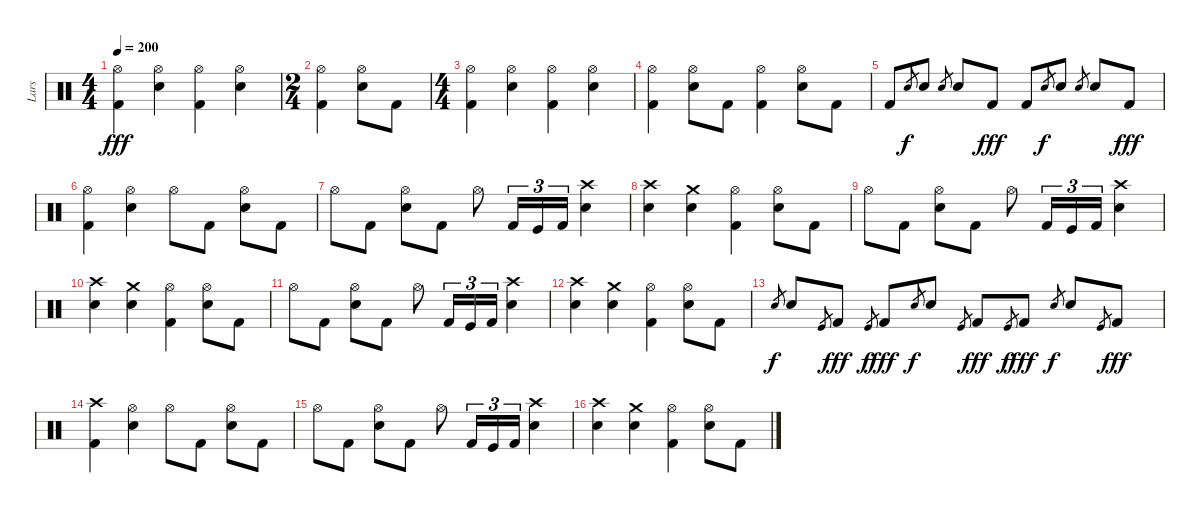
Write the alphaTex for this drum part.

\track ("Lars" "Lars") {instrument percussion}
\staff {score}
\articulation defaults
\ts (4 4)
\tempo 200
\clef neutral
\ks c
("Hi-Hat (open)" "Kick (hit) 2").4{dy fff} ("Hi-Hat (open)" "Snare (hit) 2").4 ("Hi-Hat (open)" "Kick (hit) 2").4 ("Hi-Hat (open)" "Snare (hit) 2").4 |
\ts (2 4)
("Hi-Hat (open)" "Kick (hit) 2").4 ("Hi-Hat (open)" "Snare (hit) 2").8 "Kick (hit) 2".8 |
\ts (4 4)
("Hi-Hat (open)" "Kick (hit) 2").4 ("Hi-Hat (open)" "Snare (hit) 2").4 ("Hi-Hat (open)" "Kick (hit) 2").4 ("Hi-Hat (open)" "Snare (hit) 2").4 |
("Hi-Hat (open)" "Kick (hit) 2").4 ("Hi-Hat (open)" "Snare (hit) 2").8 "Kick (hit) 2".8 ("Hi-Hat (open)" "Kick (hit) 2").4 ("Hi-Hat (open)" "Snare (hit) 2").8 "Kick (hit) 2".8 |
"Kick (hit) 2".8 "Snare (hit) 2".8{gr dy f} "Snare (hit) 2".8 "Snare (hit) 2".8{gr} "Snare (hit) 2".8 "Kick (hit) 2".8{dy fff} "Kick (hit) 2".8 "Snare (hit) 2".8{gr dy f} "Snare (hit) 2".8 "Snare (hit) 2".8{gr} "Snare (hit) 2".8 "Kick (hit) 2".8{dy fff} |
("Hi-Hat (open)" "Kick (hit) 2").4 ("Hi-Hat (open)" "Snare (hit) 2").4 "Hi-Hat (open)".8 "Kick (hit) 2".8 ("Hi-Hat (open)" "Snare (hit) 2").8 "Kick (hit) 2".8 |
"Hi-Hat (open)".8 "Kick (hit) 2".8 ("Hi-Hat (open)" "Snare (hit) 2").8 "Kick (hit) 2".8 "Hi-Hat (open)".8 "Kick (hit) 2".16{tu (3 2)} "Kick (hit)".16{tu (3 2)} "Kick (hit) 2".16{tu (3 2)} ("Crash high (hit)" "Snare (hit) 2").4 |
("Crash high (hit)" "Snare (hit) 2").4 ("Crash medium (hit)" "Snare (hit) 2").4 ("Hi-Hat (open)" "Kick (hit) 2").4 ("Hi-Hat (open)" "Snare (hit) 2").8 "Kick (hit) 2".8 |
"Hi-Hat (open)".8 "Kick (hit) 2".8 ("Hi-Hat (open)" "Snare (hit) 2").8 "Kick (hit) 2".8 "Hi-Hat (open)".8 "Kick (hit) 2".16{tu (3 2)} "Kick (hit)".16{tu (3 2)} "Kick (hit) 2".16{tu (3 2)} ("Crash high (hit)" "Snare (hit) 2").4 |
("Crash high (hit)" "Snare (hit) 2").4 ("Crash medium (hit)" "Snare (hit) 2").4 ("Hi-Hat (open)" "Kick (hit) 2").4 ("Hi-Hat (open)" "Snare (hit) 2").8 "Kick (hit) 2".8 |
"Hi-Hat (open)".8 "Kick (hit) 2".8 ("Hi-Hat (open)" "Snare (hit) 2").8 "Kick (hit) 2".8 "Hi-Hat (open)".8 "Kick (hit) 2".16{tu (3 2)} "Kick (hit)".16{tu (3 2)} "Kick (hit) 2".16{tu (3 2)} ("Crash high (hit)" "Snare (hit) 2").4 |
("Crash high (hit)" "Snare (hit) 2").4 ("Crash medium (hit)" "Snare (hit) 2").4 ("Hi-Hat (open)" "Kick (hit) 2").4 ("Hi-Hat (open)" "Snare (hit) 2").8 "Kick (hit) 2".8 |
"Snare (hit) 2".8{gr dy f} "Snare (hit) 2".8 "Kick (hit)".8{gr} "Kick (hit) 2".8{dy fff} "Kick (hit)".8{gr dy f} "Kick (hit) 2".8{dy fff} "Snare (hit) 2".8{gr dy f} "Snare (hit) 2".8 "Kick (hit)".8{gr} "Kick (hit) 2".8{dy fff} "Kick (hit)".8{gr dy f} "Kick (hit) 2".8{dy fff} "Snare (hit) 2".8{gr dy f} "Snare (hit) 2".8 "Kick (hit)".8{gr} "Kick (hit) 2".8{dy fff} |
("Crash high (hit)" "Kick (hit) 2").4 ("Hi-Hat (open)" "Snare (hit) 2").4 "Hi-Hat (open)".8 "Kick (hit) 2".8 ("Hi-Hat (open)" "Snare (hit) 2").8 "Kick (hit) 2".8 |
"Hi-Hat (open)".8 "Kick (hit) 2".8 ("Hi-Hat (open)" "Snare (hit) 2").8 "Kick (hit) 2".8 "Hi-Hat (open)".8 "Kick (hit) 2".16{tu (3 2)} "Kick (hit)".16{tu (3 2)} "Kick (hit) 2".16{tu (3 2)} ("Crash high (hit)" "Snare (hit) 2").4 |
("Crash high (hit)" "Snare (hit) 2").4 ("Crash medium (hit)" "Snare (hit) 2").4 ("Hi-Hat (open)" "Kick (hit) 2").4 ("Hi-Hat (open)" "Snare (hit) 2").8 "Kick (hit) 2".8
